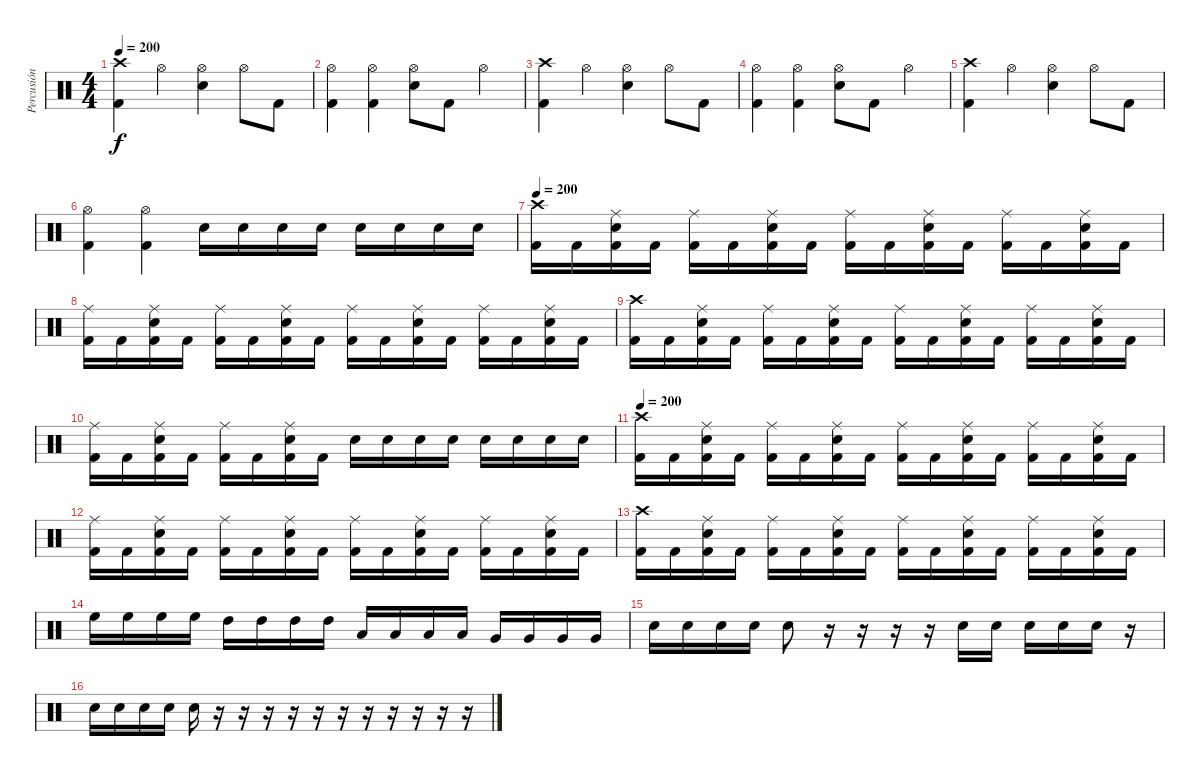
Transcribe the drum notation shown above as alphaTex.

\track ("Percusión" "Percusión") {instrument percussion}
\staff {score}
\articulation defaults
\ts (4 4)
\tempo 200
\clef neutral
\ks c
("Kick (hit) 2" "Crash high (hit)").4{dy f} "Hi-Hat (open)".4 ("Snare (hit) 2" "Hi-Hat (open)").4 "Hi-Hat (open)".8 "Kick (hit) 2".8 |
("Kick (hit) 2" "Hi-Hat (open)").4 ("Kick (hit) 2" "Hi-Hat (open)").4 ("Snare (hit) 2" "Hi-Hat (open)").8 "Kick (hit) 2".8 "Hi-Hat (open)".4 |
("Kick (hit) 2" "Crash high (hit)").4 "Hi-Hat (open)".4 ("Snare (hit) 2" "Hi-Hat (open)").4 "Hi-Hat (open)".8 "Kick (hit) 2".8 |
("Kick (hit) 2" "Hi-Hat (open)").4 ("Kick (hit) 2" "Hi-Hat (open)").4 ("Snare (hit) 2" "Hi-Hat (open)").8 "Kick (hit) 2".8 "Hi-Hat (open)".4 |
("Kick (hit) 2" "Crash high (hit)").4 "Hi-Hat (open)".4 ("Snare (hit) 2" "Hi-Hat (open)").4 "Hi-Hat (open)".8 "Kick (hit) 2".8 |
("Kick (hit) 2" "Hi-Hat (open)").4 ("Kick (hit) 2" "Hi-Hat (open)").4 "Snare (hit) 2".16 "Snare (hit) 2".16 "Snare (hit) 2".16 "Snare (hit) 2".16 "Snare (hit) 2".16 "Snare (hit) 2".16 "Snare (hit) 2".16 "Snare (hit) 2".16 |
\tempo 200
("Kick (hit) 2" "Crash high (hit)").16 "Kick (hit) 2".16 ("Kick (hit) 2" "Ride (middle)" "Snare (hit) 2").16 "Kick (hit) 2".16 ("Kick (hit) 2" "Ride (middle)").16 "Kick (hit) 2".16 ("Kick (hit) 2" "Ride (middle)" "Snare (hit) 2").16 "Kick (hit) 2".16 ("Kick (hit) 2" "Ride (middle)").16 "Kick (hit) 2".16 ("Kick (hit) 2" "Ride (middle)" "Snare (hit) 2").16 "Kick (hit) 2".16 ("Kick (hit) 2" "Ride (middle)").16 "Kick (hit) 2".16 ("Kick (hit) 2" "Ride (middle)" "Snare (hit) 2").16 "Kick (hit) 2".16 |
("Kick (hit) 2" "Ride (middle)").16 "Kick (hit) 2".16 ("Kick (hit) 2" "Ride (middle)" "Snare (hit) 2").16 "Kick (hit) 2".16 ("Kick (hit) 2" "Ride (middle)").16 "Kick (hit) 2".16 ("Kick (hit) 2" "Ride (middle)" "Snare (hit) 2").16 "Kick (hit) 2".16 ("Kick (hit) 2" "Ride (middle)").16 "Kick (hit) 2".16 ("Kick (hit) 2" "Ride (middle)" "Snare (hit) 2").16 "Kick (hit) 2".16 ("Kick (hit) 2" "Ride (middle)").16 "Kick (hit) 2".16 ("Kick (hit) 2" "Ride (middle)" "Snare (hit) 2").16 "Kick (hit) 2".16 |
("Kick (hit) 2" "Crash high (hit)").16 "Kick (hit) 2".16 ("Kick (hit) 2" "Ride (middle)" "Snare (hit) 2").16 "Kick (hit) 2".16 ("Kick (hit) 2" "Ride (middle)").16 "Kick (hit) 2".16 ("Kick (hit) 2" "Ride (middle)" "Snare (hit) 2").16 "Kick (hit) 2".16 ("Kick (hit) 2" "Ride (middle)").16 "Kick (hit) 2".16 ("Kick (hit) 2" "Ride (middle)" "Snare (hit) 2").16 "Kick (hit) 2".16 ("Kick (hit) 2" "Ride (middle)").16 "Kick (hit) 2".16 ("Kick (hit) 2" "Ride (middle)" "Snare (hit) 2").16 "Kick (hit) 2".16 |
("Kick (hit) 2" "Ride (middle)").16 "Kick (hit) 2".16 ("Kick (hit) 2" "Ride (middle)" "Snare (hit) 2").16 "Kick (hit) 2".16 ("Kick (hit) 2" "Ride (middle)").16 "Kick (hit) 2".16 ("Kick (hit) 2" "Ride (middle)" "Snare (hit) 2").16 "Kick (hit) 2".16 "Snare (hit) 2".16 "Snare (hit) 2".16 "Snare (hit) 2".16 "Snare (hit) 2".16 "Snare (hit) 2".16 "Snare (hit) 2".16 "Snare (hit) 2".16 "Snare (hit) 2".16 |
\tempo 200
("Kick (hit) 2" "Crash high (hit)").16 "Kick (hit) 2".16 ("Kick (hit) 2" "Ride (middle)" "Snare (hit) 2").16 "Kick (hit) 2".16 ("Kick (hit) 2" "Ride (middle)").16 "Kick (hit) 2".16 ("Kick (hit) 2" "Ride (middle)" "Snare (hit) 2").16 "Kick (hit) 2".16 ("Kick (hit) 2" "Ride (middle)").16 "Kick (hit) 2".16 ("Kick (hit) 2" "Ride (middle)" "Snare (hit) 2").16 "Kick (hit) 2".16 ("Kick (hit) 2" "Ride (middle)").16 "Kick (hit) 2".16 ("Kick (hit) 2" "Ride (middle)" "Snare (hit) 2").16 "Kick (hit) 2".16 |
("Kick (hit) 2" "Ride (middle)").16 "Kick (hit) 2".16 ("Kick (hit) 2" "Ride (middle)" "Snare (hit) 2").16 "Kick (hit) 2".16 ("Kick (hit) 2" "Ride (middle)").16 "Kick (hit) 2".16 ("Kick (hit) 2" "Ride (middle)" "Snare (hit) 2").16 "Kick (hit) 2".16 ("Kick (hit) 2" "Ride (middle)").16 "Kick (hit) 2".16 ("Kick (hit) 2" "Ride (middle)" "Snare (hit) 2").16 "Kick (hit) 2".16 ("Kick (hit) 2" "Ride (middle)").16 "Kick (hit) 2".16 ("Kick (hit) 2" "Ride (middle)" "Snare (hit) 2").16 "Kick (hit) 2".16 |
("Kick (hit) 2" "Crash high (hit)").16 "Kick (hit) 2".16 ("Kick (hit) 2" "Ride (middle)" "Snare (hit) 2").16 "Kick (hit) 2".16 ("Kick (hit) 2" "Ride (middle)").16 "Kick (hit) 2".16 ("Kick (hit) 2" "Ride (middle)" "Snare (hit) 2").16 "Kick (hit) 2".16 ("Kick (hit) 2" "Ride (middle)").16 "Kick (hit) 2".16 ("Kick (hit) 2" "Ride (middle)" "Snare (hit) 2").16 "Kick (hit) 2".16 ("Kick (hit) 2" "Ride (middle)").16 "Kick (hit) 2".16 ("Kick (hit) 2" "Ride (middle)" "Snare (hit) 2").16 "Kick (hit) 2".16 |
"High Floor Tom (hit)".16 "High Floor Tom (hit)".16 "High Floor Tom (hit)".16 "High Floor Tom (hit)".16 "High Tom (hit)".16 "High Tom (hit)".16 "High Tom (hit)".16 "High Tom (hit)".16 "Low Tom (hit)".16 "Low Tom (hit)".16 "Low Tom (hit)".16 "Low Tom (hit)".16 "Very Low Tom (hit)".16 "Very Low Tom (hit)".16 "Very Low Tom (hit)".16 "Very Low Tom (hit)".16 |
"Snare (hit) 2".16 "Snare (hit) 2".16 "Snare (hit) 2".16 "Snare (hit) 2".16 "Snare (hit) 2".8 r.16 r.16 r.16 r.16 "Snare (hit) 2".16 "Snare (hit) 2".16 "Snare (hit) 2".16 "Snare (hit) 2".16 "Snare (hit) 2".16 r.16 |
"Snare (hit) 2".16 "Snare (hit) 2".16 "Snare (hit) 2".16 "Snare (hit) 2".16 "Snare (hit) 2".16 r.16 r.16 r.16 r.16 r.16 r.16 r.16 r.16 r.16 r.16 r.16
